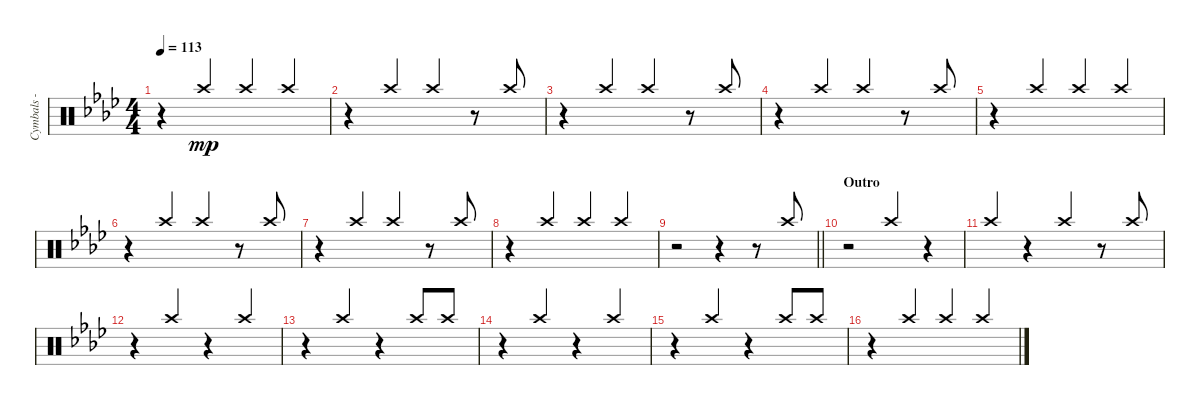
\track ("Cymbals - crash" "Cymbals - ") {instrument percussion}
\staff {score}
\articulation defaults
\ts (4 4)
\tempo 113
\clef neutral
\ks fminor
r.4{dy mp} "Crash high (hit)".4{beam Up} "Crash high (hit)".4{beam Up} "Crash high (hit)".4{beam Up} |
r.4 "Crash high (hit)".4{beam Up} "Crash high (hit)".4{beam Up} r.8 "Crash high (hit)".8{beam Up} |
r.4 "Crash high (hit)".4{beam Up} "Crash high (hit)".4{beam Up} r.8 "Crash high (hit)".8{beam Up} |
r.4 "Crash high (hit)".4{beam Up} "Crash high (hit)".4{beam Up} r.8 "Crash high (hit)".8{beam Up} |
r.4 "Crash high (hit)".4{beam Up} "Crash high (hit)".4{beam Up} "Crash high (hit)".4{beam Up} |
r.4 "Crash high (hit)".4{beam Up} "Crash high (hit)".4{beam Up} r.8 "Crash high (hit)".8{beam Up} |
r.4 "Crash high (hit)".4{beam Up} "Crash high (hit)".4{beam Up} r.8 "Crash high (hit)".8{beam Up} |
r.4 "Crash high (hit)".4{beam Up} "Crash high (hit)".4{beam Up} "Crash high (hit)".4{beam Up} |
\barLineRight lightlight
r.2 r.4 r.8 "Crash high (hit)".8{beam Up} |
\section ("" "Outro")
r.2 "Crash high (hit)".4{beam Up} r.4 |
"Crash high (hit)".4{beam Up} r.4 "Crash high (hit)".4{beam Up} r.8 "Crash high (hit)".8{beam Up} |
r.4 "Crash high (hit)".4{beam Up} r.4 "Crash high (hit)".4{beam Up} |
r.4 "Crash high (hit)".4{beam Up} r.4 "Crash high (hit)".8{beam Up} "Crash high (hit)".8{beam Up} |
r.4 "Crash high (hit)".4{beam Up} r.4 "Crash high (hit)".4{beam Up} |
r.4 "Crash high (hit)".4{beam Up} r.4 "Crash high (hit)".8{beam Up} "Crash high (hit)".8{beam Up} |
r.4 "Crash high (hit)".4{beam Up} "Crash high (hit)".4{beam Up} "Crash high (hit)".4{beam Up}
